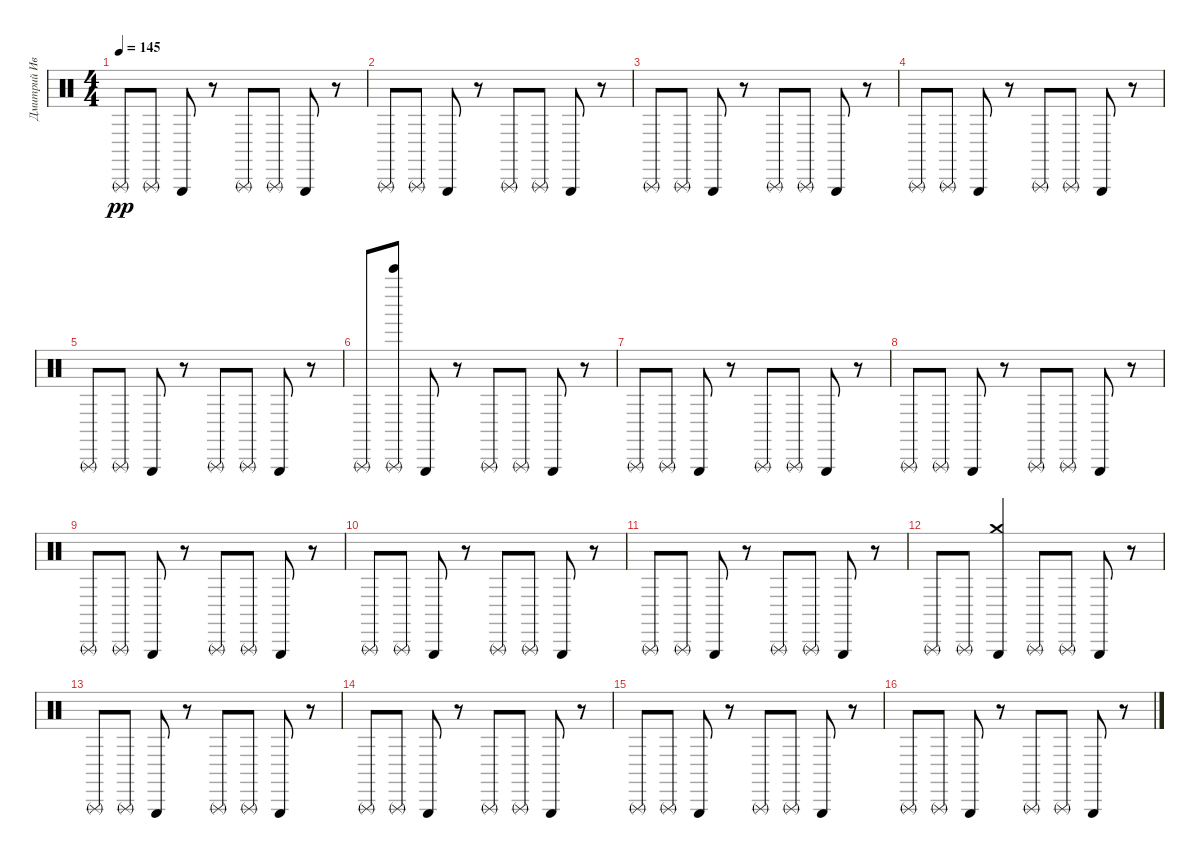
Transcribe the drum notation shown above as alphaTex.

\track ("Дмитрий Иванов" "Дмитрий Ив") {instrument percussion}
\staff {score}
\articulation defaults
\ts (4 4)
\tempo 145
\clef neutral
\ks c "Triangle (rnute)".8{dy pp} "Triangle (rnute)".8 "Triangle (hit)".8
r.8 "Triangle (rnute)".8 "Triangle (rnute)".8 "Triangle (hit)".8 r.8 |
"Triangle (rnute)".8 "Triangle (rnute)".8 "Triangle (hit)".8 r.8 "Triangle (rnute)".8 "Triangle (rnute)".8 "Triangle (hit)".8 r.8 |
"Triangle (rnute)".8 "Triangle (rnute)".8 "Triangle (hit)".8 r.8 "Triangle (rnute)".8 "Triangle (rnute)".8 "Triangle (hit)".8 r.8 |
"Triangle (rnute)".8 "Triangle (rnute)".8 "Triangle (hit)".8 r.8 "Triangle (rnute)".8 "Triangle (rnute)".8 "Triangle (hit)".8 r.8 |
"Triangle (rnute)".8 "Triangle (rnute)".8 "Triangle (hit)".8 r.8 "Triangle (rnute)".8 "Triangle (rnute)".8 "Triangle (hit)".8 r.8 |
"Triangle (rnute)".8 ("Bell Tree (hit)" "Triangle (rnute)").8 "Triangle (hit)".8 r.8 "Triangle (rnute)".8 "Triangle (rnute)".8 "Triangle (hit)".8 r.8 |
"Triangle (rnute)".8 "Triangle (rnute)".8 "Triangle (hit)".8 r.8 "Triangle (rnute)".8 "Triangle (rnute)".8 "Triangle (hit)".8 r.8 |
"Triangle (rnute)".8 "Triangle (rnute)".8 "Triangle (hit)".8 r.8 "Triangle (rnute)".8 "Triangle (rnute)".8 "Triangle (hit)".8 r.8 |
"Triangle (rnute)".8 "Triangle (rnute)".8 "Triangle (hit)".8 r.8 "Triangle (rnute)".8 "Triangle (rnute)".8 "Triangle (hit)".8 r.8 |
"Triangle (rnute)".8 "Triangle (rnute)".8 "Triangle (hit)".8 r.8 "Triangle (rnute)".8 "Triangle (rnute)".8 "Triangle (hit)".8 r.8 |
"Triangle (rnute)".8 "Triangle (rnute)".8 "Triangle (hit)".8 r.8 "Triangle (rnute)".8 "Triangle (rnute)".8 "Triangle (hit)".8 r.8 |
"Triangle (rnute)".8 "Triangle (rnute)".8 ("Crash medium (hit)" "Triangle (hit)").4 "Triangle (rnute)".8 "Triangle (rnute)".8 "Triangle (hit)".8 r.8 |
"Triangle (rnute)".8 "Triangle (rnute)".8 "Triangle (hit)".8 r.8 "Triangle (rnute)".8 "Triangle (rnute)".8 "Triangle (hit)".8 r.8 |
"Triangle (rnute)".8 "Triangle (rnute)".8 "Triangle (hit)".8 r.8 "Triangle (rnute)".8 "Triangle (rnute)".8 "Triangle (hit)".8 r.8 |
"Triangle (rnute)".8 "Triangle (rnute)".8 "Triangle (hit)".8 r.8 "Triangle (rnute)".8 "Triangle (rnute)".8 "Triangle (hit)".8 r.8 |
"Triangle (rnute)".8 "Triangle (rnute)".8 "Triangle (hit)".8 r.8 "Triangle (rnute)".8 "Triangle (rnute)".8 "Triangle (hit)".8 r.8
